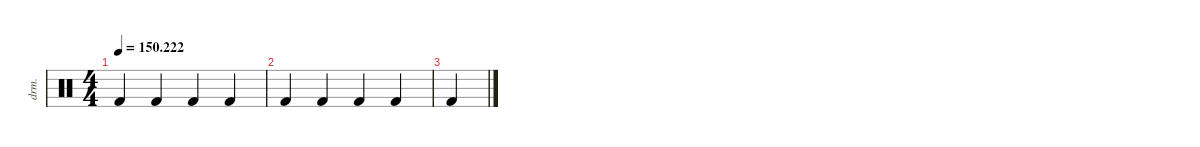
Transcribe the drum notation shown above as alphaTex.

\defaultSystemsLayout 4
\hideDynamics
\bracketExtendMode nobrackets
\otherSystemsTrackNameOrientation horizontal
\track ("Drumkit" "drm.") {instrument percussion}
\staff
\articulation defaults
\ts (4 4)
\beaming (8 2 2 2 2)
\tempo
150.222
\accidentals auto
\clef neutral
\ottava regular
\simile none
\ks c "Kick (hit) 2".4{dy mf} "Kick (hit) 2".4 "Kick (hit) 2".4 "Kick (hit) 2".4
|
"Kick (hit) 2".4 "Kick (hit) 2".4 "Kick (hit) 2".4 "Kick (hit) 2".4 |
"Kick (hit) 2".4
